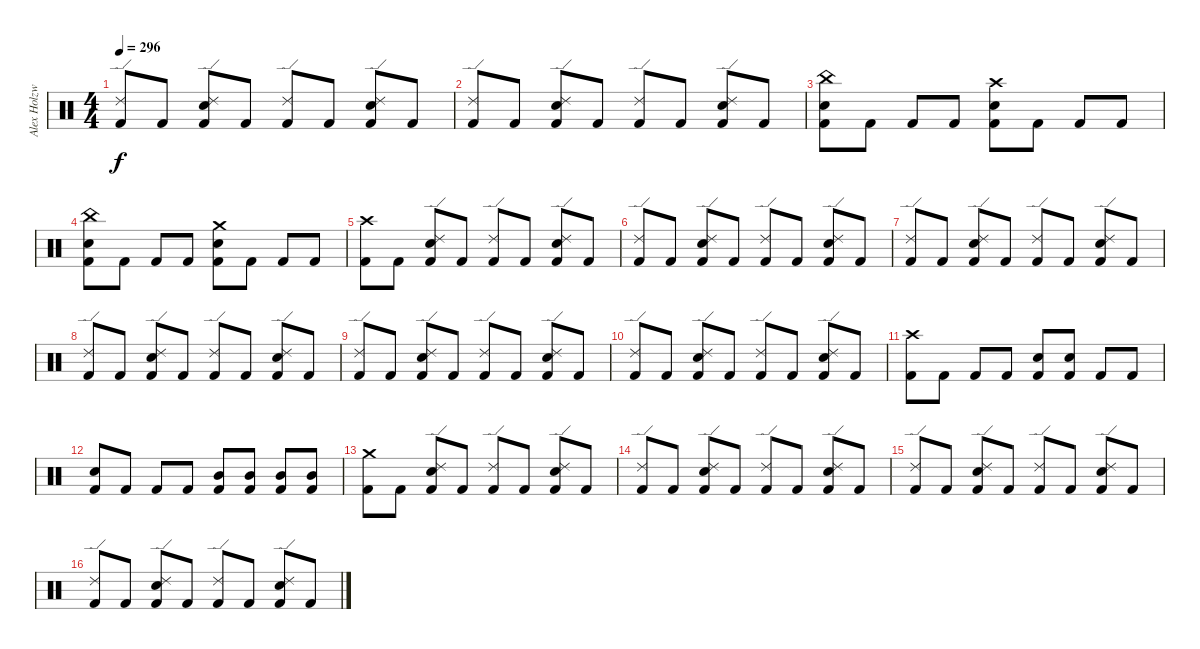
\track ("Alex Holzwarth" "Alex Holzw") {instrument percussion}
\staff {score}
\articulation defaults
\ts (4 4)
\tempo 296
\clef neutral
\ks c
("Ride (edge) 2" "Kick (hit) 2").8{dy f} "Kick (hit) 2".8 ("Ride (edge) 2" "Snare (hit) 2" "Kick (hit) 2").8 "Kick (hit) 2".8 ("Ride (edge) 2" "Kick (hit) 2").8 "Kick (hit) 2".8 ("Ride (edge) 2" "Snare (hit) 2" "Kick (hit) 2").8 "Kick (hit) 2".8 |
("Ride (edge) 2" "Kick (hit) 2").8 "Kick (hit) 2".8 ("Ride (edge) 2" "Snare (hit) 2" "Kick (hit) 2").8 "Kick (hit) 2".8 ("Ride (edge) 2" "Kick (hit) 2").8 "Kick (hit) 2".8 ("Ride (edge) 2" "Snare (hit) 2" "Kick (hit) 2").8 "Kick (hit) 2".8 |
("China (hit)" "Snare (hit) 2" "Kick (hit) 2").8 "Kick (hit) 2".8 "Kick (hit) 2".8 "Kick (hit) 2".8 ("Crash high (hit)" "Snare (hit) 2" "Kick (hit) 2").8 "Kick (hit) 2".8 "Kick (hit) 2".8 "Kick (hit) 2".8 |
("China (hit)" "Snare (hit) 2" "Kick (hit) 2").8 "Kick (hit) 2".8 "Kick (hit) 2".8 "Kick (hit) 2".8 ("Crash medium (hit)" "Snare (hit) 2" "Kick (hit) 2").8 "Kick (hit) 2".8 "Kick (hit) 2".8 "Kick (hit) 2".8 |
("Crash high (hit)" "Kick (hit) 2").8 "Kick (hit) 2".8 ("Ride (edge) 2" "Snare (hit) 2" "Kick (hit) 2").8 "Kick (hit) 2".8 ("Ride (edge) 2" "Kick (hit) 2").8 "Kick (hit) 2".8 ("Ride (edge) 2" "Snare (hit) 2" "Kick (hit) 2").8 "Kick (hit) 2".8 |
("Ride (edge) 2" "Kick (hit) 2").8 "Kick (hit) 2".8 ("Ride (edge) 2" "Snare (hit) 2" "Kick (hit) 2").8 "Kick (hit) 2".8 ("Ride (edge) 2" "Kick (hit) 2").8 "Kick (hit) 2".8 ("Ride (edge) 2" "Snare (hit) 2" "Kick (hit) 2").8 "Kick (hit) 2".8 |
("Ride (edge) 2" "Kick (hit) 2").8 "Kick (hit) 2".8 ("Ride (edge) 2" "Snare (hit) 2" "Kick (hit) 2").8 "Kick (hit) 2".8 ("Ride (edge) 2" "Kick (hit) 2").8 "Kick (hit) 2".8 ("Ride (edge) 2" "Snare (hit) 2" "Kick (hit) 2").8 "Kick (hit) 2".8 |
("Ride (edge) 2" "Kick (hit) 2").8 "Kick (hit) 2".8 ("Ride (edge) 2" "Snare (hit) 2" "Kick (hit) 2").8 "Kick (hit) 2".8 ("Ride (edge) 2" "Kick (hit) 2").8 "Kick (hit) 2".8 ("Ride (edge) 2" "Snare (hit) 2" "Kick (hit) 2").8 "Kick (hit) 2".8 |
("Ride (edge) 2" "Kick (hit) 2").8 "Kick (hit) 2".8 ("Ride (edge) 2" "Snare (hit) 2" "Kick (hit) 2").8 "Kick (hit) 2".8 ("Ride (edge) 2" "Kick (hit) 2").8 "Kick (hit) 2".8 ("Ride (edge) 2" "Snare (hit) 2" "Kick (hit) 2").8 "Kick (hit) 2".8 |
("Ride (edge) 2" "Kick (hit) 2").8 "Kick (hit) 2".8 ("Ride (edge) 2" "Snare (hit) 2" "Kick (hit) 2").8 "Kick (hit) 2".8 ("Ride (edge) 2" "Kick (hit) 2").8 "Kick (hit) 2".8 ("Ride (edge) 2" "Snare (hit) 2" "Kick (hit) 2").8 "Kick (hit) 2".8 |
("Crash high (hit)" "Kick (hit) 2").8 "Kick (hit) 2".8 "Kick (hit) 2".8 "Kick (hit) 2".8 ("Snare (hit) 2" "Kick (hit) 2").8 ("Snare (hit) 2" "Kick (hit) 2").8 "Kick (hit) 2".8 "Kick (hit) 2".8 |
("Snare (hit) 2" "Kick (hit) 2").8 "Kick (hit) 2".8 "Kick (hit) 2".8 "Kick (hit) 2".8 ("Mid Tom (hit)" "Kick (hit) 2").8 ("Mid Tom (hit)" "Kick (hit) 2").8 ("Mid Tom (hit)" "Kick (hit) 2").8 ("Mid Tom (hit)" "Kick (hit) 2").8 |
("Crash medium (hit)" "Kick (hit) 2").8 "Kick (hit) 2".8 ("Ride (edge) 2" "Snare (hit) 2" "Kick (hit) 2").8 "Kick (hit) 2".8 ("Ride (edge) 2" "Kick (hit) 2").8 "Kick (hit) 2".8 ("Ride (edge) 2" "Snare (hit) 2" "Kick (hit) 2").8 "Kick (hit) 2".8 |
("Ride (edge) 2" "Kick (hit) 2").8 "Kick (hit) 2".8 ("Ride (edge) 2" "Snare (hit) 2" "Kick (hit) 2").8 "Kick (hit) 2".8 ("Ride (edge) 2" "Kick (hit) 2").8 "Kick (hit) 2".8 ("Ride (edge) 2" "Snare (hit) 2" "Kick (hit) 2").8 "Kick (hit) 2".8 |
("Ride (edge) 2" "Kick (hit) 2").8 "Kick (hit) 2".8 ("Ride (edge) 2" "Snare (hit) 2" "Kick (hit) 2").8 "Kick (hit) 2".8 ("Ride (edge) 2" "Kick (hit) 2").8 "Kick (hit) 2".8 ("Ride (edge) 2" "Snare (hit) 2" "Kick (hit) 2").8 "Kick (hit) 2".8 |
("Ride (edge) 2" "Kick (hit) 2").8 "Kick (hit) 2".8 ("Ride (edge) 2" "Snare (hit) 2" "Kick (hit) 2").8 "Kick (hit) 2".8 ("Ride (edge) 2" "Kick (hit) 2").8 "Kick (hit) 2".8 ("Ride (edge) 2" "Snare (hit) 2" "Kick (hit) 2").8 "Kick (hit) 2".8
